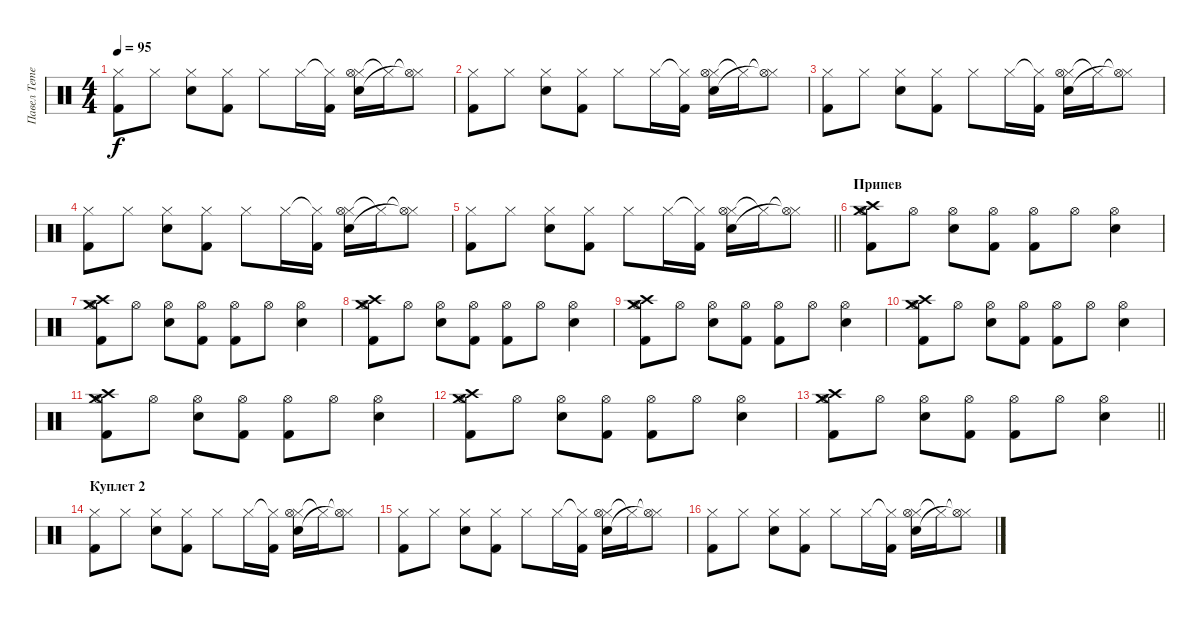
\track ("Павел Тетерин" "Павел Тете") {instrument percussion}
\staff {score}
\articulation defaults
\ts (4 4)
\tempo 95
\clef neutral
\ks c
("Hi-Hat (closed)" "Kick (hit) 2").8{dy f} "Hi-Hat (closed)".8 ("Hi-Hat (closed)" "Snare (hit) 2").8 ("Hi-Hat (closed)" "Kick (hit) 2").8 "Hi-Hat (closed)".8 "Hi-Hat (closed)".16 ("Hi-Hat (closed)"{t} "Kick (hit) 2").16 ("Hi-Hat (closed)" "Snare (hit) 2" "Hi-Hat (open)").16 "Hi-Hat (closed)"{t}.16 ("Hi-Hat (closed)"{t} "Hi-Hat (open)"{t}).8 |
("Hi-Hat (closed)" "Kick (hit) 2").8 "Hi-Hat (closed)".8 ("Hi-Hat (closed)" "Snare (hit) 2").8 ("Hi-Hat (closed)" "Kick (hit) 2").8 "Hi-Hat (closed)".8 "Hi-Hat (closed)".16 ("Hi-Hat (closed)"{t} "Kick (hit) 2").16 ("Hi-Hat (closed)" "Snare (hit) 2" "Hi-Hat (open)").16 "Hi-Hat (closed)"{t}.16 ("Hi-Hat (closed)"{t} "Hi-Hat (open)"{t}).8 |
("Hi-Hat (closed)" "Kick (hit) 2").8 "Hi-Hat (closed)".8 ("Hi-Hat (closed)" "Snare (hit) 2").8 ("Hi-Hat (closed)" "Kick (hit) 2").8 "Hi-Hat (closed)".8 "Hi-Hat (closed)".16 ("Hi-Hat (closed)"{t} "Kick (hit) 2").16 ("Hi-Hat (closed)" "Snare (hit) 2" "Hi-Hat (open)").16 "Hi-Hat (closed)"{t}.16 ("Hi-Hat (closed)"{t} "Hi-Hat (open)"{t}).8 |
("Hi-Hat (closed)" "Kick (hit) 2").8 "Hi-Hat (closed)".8 ("Hi-Hat (closed)" "Snare (hit) 2").8 ("Hi-Hat (closed)" "Kick (hit) 2").8 "Hi-Hat (closed)".8 "Hi-Hat (closed)".16 ("Hi-Hat (closed)"{t} "Kick (hit) 2").16 ("Hi-Hat (closed)" "Snare (hit) 2" "Hi-Hat (open)").16 "Hi-Hat (closed)"{t}.16 ("Hi-Hat (closed)"{t} "Hi-Hat (open)"{t}).8 |
\barLineRight lightlight
("Hi-Hat (closed)" "Kick (hit) 2").8 "Hi-Hat (closed)".8 ("Hi-Hat (closed)" "Snare (hit) 2").8 ("Hi-Hat (closed)" "Kick (hit) 2").8 "Hi-Hat (closed)".8 "Hi-Hat (closed)".16 ("Hi-Hat (closed)"{t} "Kick (hit) 2").16 ("Hi-Hat (closed)" "Snare (hit) 2" "Hi-Hat (open)").16 "Hi-Hat (closed)"{t}.16 ("Hi-Hat (closed)"{t} "Hi-Hat (open)"{t}).8 |
\section ("" "Припев")
("Crash high (hit)" "Crash medium (hit)" "Kick (hit) 2" "Hi-Hat (open)").8 "Hi-Hat (open)".8 ("Hi-Hat (open)" "Snare (hit) 2").8 ("Hi-Hat (open)" "Kick (hit) 2").8 ("Hi-Hat (open)" "Kick (hit) 2").8 "Hi-Hat (open)".8 ("Hi-Hat (open)" "Snare (hit) 2").4 |
("Crash high (hit)" "Crash medium (hit)" "Kick (hit) 2" "Hi-Hat (open)").8 "Hi-Hat (open)".8 ("Hi-Hat (open)" "Snare (hit) 2").8 ("Hi-Hat (open)" "Kick (hit) 2").8 ("Hi-Hat (open)" "Kick (hit) 2").8 "Hi-Hat (open)".8 ("Hi-Hat (open)" "Snare (hit) 2").4 |
("Crash high (hit)" "Crash medium (hit)" "Kick (hit) 2" "Hi-Hat (open)").8 "Hi-Hat (open)".8 ("Hi-Hat (open)" "Snare (hit) 2").8 ("Hi-Hat (open)" "Kick (hit) 2").8 ("Hi-Hat (open)" "Kick (hit) 2").8 "Hi-Hat (open)".8 ("Hi-Hat (open)" "Snare (hit) 2").4 |
("Crash high (hit)" "Crash medium (hit)" "Kick (hit) 2" "Hi-Hat (open)").8 "Hi-Hat (open)".8 ("Hi-Hat (open)" "Snare (hit) 2").8 ("Hi-Hat (open)" "Kick (hit) 2").8 ("Hi-Hat (open)" "Kick (hit) 2").8 "Hi-Hat (open)".8 ("Hi-Hat (open)" "Snare (hit) 2").4 |
("Crash high (hit)" "Hi-Hat (open)" "Kick (hit) 2" "Crash medium (hit)").8 "Hi-Hat (open)".8 ("Hi-Hat (open)" "Snare (hit) 2").8 ("Hi-Hat (open)" "Kick (hit) 2").8 ("Hi-Hat (open)" "Kick (hit) 2").8 "Hi-Hat (open)".8 ("Hi-Hat (open)" "Snare (hit) 2").4 |
("Crash high (hit)" "Crash medium (hit)" "Kick (hit) 2" "Hi-Hat (open)").8 "Hi-Hat (open)".8 ("Hi-Hat (open)" "Snare (hit) 2").8 ("Hi-Hat (open)" "Kick (hit) 2").8 ("Hi-Hat (open)" "Kick (hit) 2").8 "Hi-Hat (open)".8 ("Hi-Hat (open)" "Snare (hit) 2").4 |
("Crash high (hit)" "Hi-Hat (open)" "Kick (hit) 2" "Crash medium (hit)").8 "Hi-Hat (open)".8 ("Hi-Hat (open)" "Snare (hit) 2").8 ("Hi-Hat (open)" "Kick (hit) 2").8 ("Hi-Hat (open)" "Kick (hit) 2").8 "Hi-Hat (open)".8 ("Hi-Hat (open)" "Snare (hit) 2").4 |
\barLineRight lightlight
("Crash high (hit)" "Hi-Hat (open)" "Kick (hit) 2" "Crash medium (hit)").8 "Hi-Hat (open)".8 ("Hi-Hat (open)" "Snare (hit) 2").8 ("Hi-Hat (open)" "Kick (hit) 2").8 ("Hi-Hat (open)" "Kick (hit) 2").8 "Hi-Hat (open)".8 ("Hi-Hat (open)" "Snare (hit) 2").4 |
\section ("" "Куплет 2")
("Hi-Hat (closed)" "Kick (hit) 2").8 "Hi-Hat (closed)".8 ("Hi-Hat (closed)" "Snare (hit) 2").8 ("Hi-Hat (closed)" "Kick (hit) 2").8 "Hi-Hat (closed)".8 "Hi-Hat (closed)".16 ("Hi-Hat (closed)"{t} "Kick (hit) 2").16 ("Hi-Hat (closed)" "Snare (hit) 2" "Hi-Hat (open)").16 "Hi-Hat (closed)"{t}.16 ("Hi-Hat (closed)"{t} "Hi-Hat (open)"{t}).8 |
("Hi-Hat (closed)" "Kick (hit) 2").8 "Hi-Hat (closed)".8 ("Hi-Hat (closed)" "Snare (hit) 2").8 ("Hi-Hat (closed)" "Kick (hit) 2").8 "Hi-Hat (closed)".8 "Hi-Hat (closed)".16 ("Hi-Hat (closed)"{t} "Kick (hit) 2").16 ("Hi-Hat (closed)" "Snare (hit) 2" "Hi-Hat (open)").16 "Hi-Hat (closed)"{t}.16 ("Hi-Hat (closed)"{t} "Hi-Hat (open)"{t}).8 |
("Hi-Hat (closed)" "Kick (hit) 2").8 "Hi-Hat (closed)".8 ("Hi-Hat (closed)" "Snare (hit) 2").8 ("Hi-Hat (closed)" "Kick (hit) 2").8 "Hi-Hat (closed)".8 "Hi-Hat (closed)".16 ("Hi-Hat (closed)"{t} "Kick (hit) 2").16 ("Hi-Hat (closed)" "Snare (hit) 2" "Hi-Hat (open)").16 "Hi-Hat (closed)"{t}.16 ("Hi-Hat (closed)"{t} "Hi-Hat (open)"{t}).8
